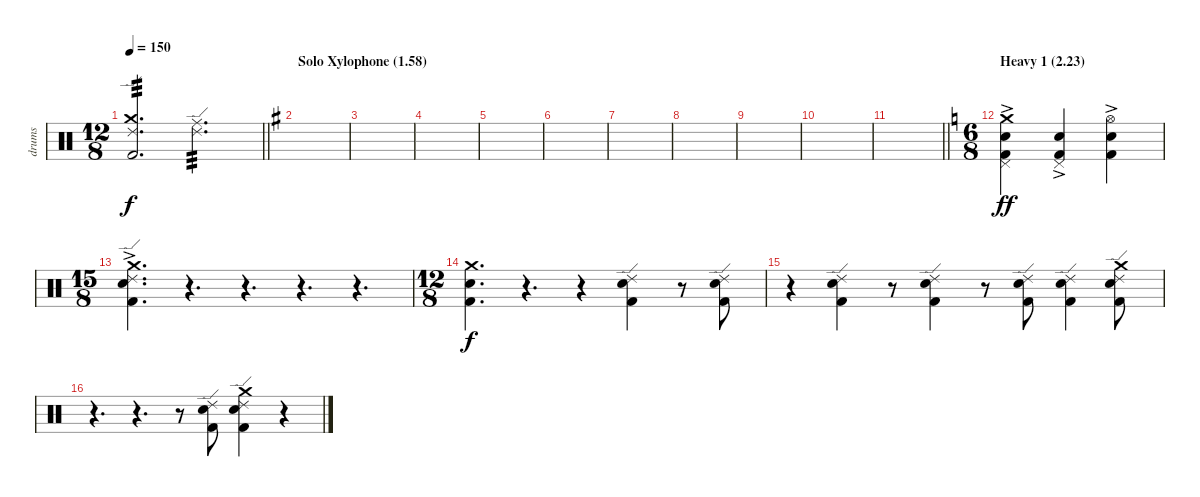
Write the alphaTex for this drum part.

\track ("drums" "drums") {instrument percussion}
\staff {score}
\articulation defaults
\ts (12 8)
\tempo 150
\clef neutral
\barLineRight lightlight
\ks c
("Ride (edge) 2" "Crash medium (hit)" "Kick (hit) 2").2{d tp 3 dy f} ("Ride (edge) 2" "Ride (middle)").2{d tp 3} |
\section ("" "Solo Xylophone (1.58)")
\ks g
|
|
|
|
|
|
|
|
|
\barLineRight lightlight
|
\ts (6 8)
\section ("" "Heavy 1 (2.23)")
\ks c
("Pedal Hi-Hat (hit)"{ac} "Crash medium (hit)"{ac} "Electric Snare (hit)"{ac} "Kick (hit) 2"{ac}).4{dy ff} ("Pedal Hi-Hat (hit)"{ac} "Electric Snare (hit)"{ac} "Kick (hit) 2"{ac}).4 ("Hi-Hat (open)"{ac} "Electric Snare (hit)"{ac} "Kick (hit) 2"{ac}).4 |
\ts (15 8)
("Ride (edge) 2"{ac} "Crash medium (hit)"{ac} "Electric Snare (hit)"{ac} "Kick (hit) 2"{ac}).4{d} r.4{d} r.4{d} r.4{d} r.4{d} |
\ts (12 8)
("Crash medium (hit)" "Electric Snare (hit)" "Kick (hit) 2").4{d dy f} r.4{d} r.4 ("Ride (edge) 2" "Electric Snare (hit)" "Kick (hit) 2").4 r.8 ("Ride (edge) 2" "Electric Snare (hit)" "Kick (hit) 2").8 |
r.4 ("Ride (edge) 2" "Electric Snare (hit)" "Kick (hit) 2").4 r.8 ("Ride (edge) 2" "Electric Snare (hit)" "Kick (hit) 2").4 r.8 ("Ride (edge) 2" "Electric Snare (hit)" "Kick (hit) 2").8 ("Ride (edge) 2" "Electric Snare (hit)" "Kick (hit) 2").4 ("Ride (edge) 2" "Crash medium (hit)" "Electric Snare (hit)" "Kick (hit) 2").8 |
r.4{d} r.4{d} r.8 ("Ride (edge) 2" "Electric Snare (hit)" "Kick (hit) 2").8 ("Ride (edge) 2" "Crash medium (hit)" "Electric Snare (hit)" "Kick (hit) 2").4 r.4
